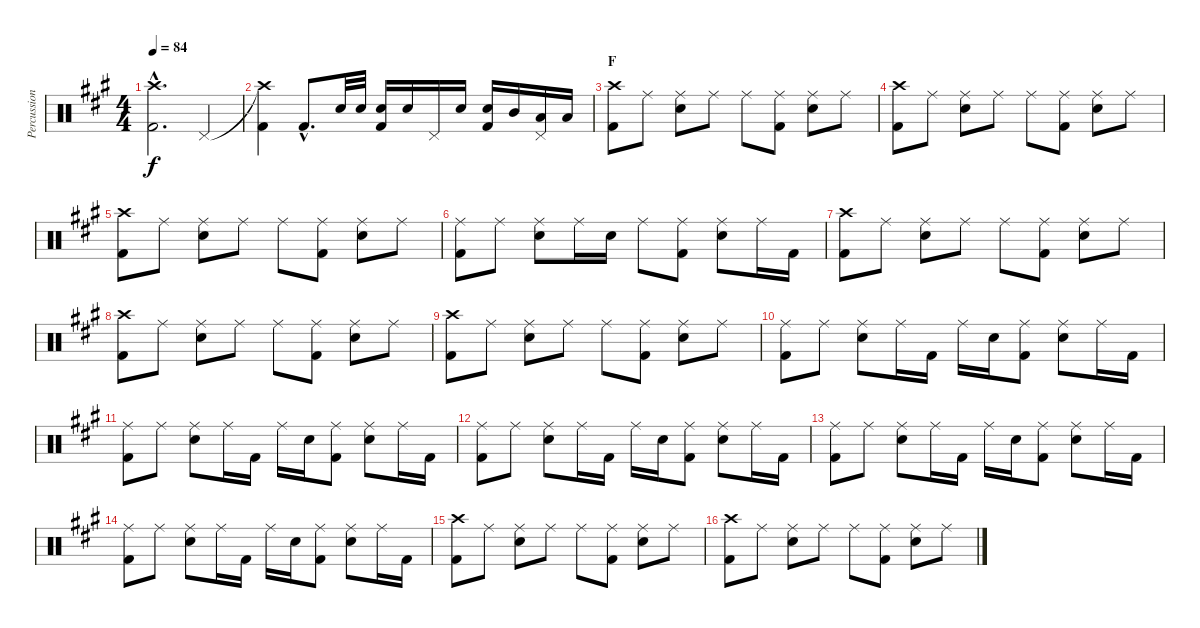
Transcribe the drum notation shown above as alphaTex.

\track ("Percussion - Chad S" "Percussion") {instrument percussion}
\staff {score}
\articulation defaults
\ts (4 4)
\tempo 84
\clef neutral
\ks a
("Crash high (hit)"{hac} "Kick (hit) 2"{hac}).2{d dy f} "Pedal Hi-Hat (hit)".4 |
("Crash high (hit)"{t} "Kick (hit) 2").4 "Kick (hit) 2"{hac}.8{d} "Snare (hit) 2".32 "Snare (hit) 2".32 ("Snare (hit) 2" "Kick (hit) 2").16 "Snare (hit) 2".16 "Pedal Hi-Hat (hit)".16 "Snare (hit) 2".16 ("Snare (hit) 2" "Kick (hit) 2").16 "Mid Tom (hit)".16 ("Low Tom (hit)" "Pedal Hi-Hat (hit)").16 "Low Floor Tom (hit)".16 |
\section ("" "F")
("Crash high (hit)" "Kick (hit) 2").8 "Ride (middle)".8 ("Ride (middle)" "Snare (hit) 2").8 "Ride (middle)".8 "Ride (middle)".8 ("Ride (middle)" "Kick (hit) 2").8 ("Ride (middle)" "Snare (hit) 2").8 "Ride (middle)".8 |
("Crash high (hit)" "Kick (hit) 2").8 "Ride (middle)".8 ("Ride (middle)" "Snare (hit) 2").8 "Ride (middle)".8 "Ride (middle)".8 ("Ride (middle)" "Kick (hit) 2").8 ("Ride (middle)" "Snare (hit) 2").8 "Ride (middle)".8 |
("Crash high (hit)" "Kick (hit) 2").8 "Ride (middle)".8 ("Ride (middle)" "Snare (hit) 2").8 "Ride (middle)".8 "Ride (middle)".8 ("Ride (middle)" "Kick (hit) 2").8 ("Ride (middle)" "Snare (hit) 2").8 "Ride (middle)".8 |
("Ride (middle)" "Kick (hit) 2").8 "Ride (middle)".8 ("Ride (middle)" "Snare (hit) 2").8 "Ride (middle)".16 "Snare (hit) 2".16 "Ride (middle)".8 ("Ride (middle)" "Kick (hit) 2").8 ("Ride (middle)" "Snare (hit) 2").8 "Ride (middle)".16 "Kick (hit) 2".16 |
("Crash high (hit)" "Kick (hit) 2").8 "Ride (middle)".8 ("Ride (middle)" "Snare (hit) 2").8 "Ride (middle)".8 "Ride (middle)".8 ("Ride (middle)" "Kick (hit) 2").8 ("Ride (middle)" "Snare (hit) 2").8 "Ride (middle)".8 |
("Crash high (hit)" "Kick (hit) 2").8 "Ride (middle)".8 ("Ride (middle)" "Snare (hit) 2").8 "Ride (middle)".8 "Ride (middle)".8 ("Ride (middle)" "Kick (hit) 2").8 ("Ride (middle)" "Snare (hit) 2").8 "Ride (middle)".8 |
("Crash high (hit)" "Kick (hit) 2").8 "Ride (middle)".8 ("Ride (middle)" "Snare (hit) 2").8 "Ride (middle)".8 "Ride (middle)".8 ("Ride (middle)" "Kick (hit) 2").8 ("Ride (middle)" "Snare (hit) 2").8 "Ride (middle)".8 |
("Ride (middle)" "Kick (hit) 2").8 "Ride (middle)".8 ("Ride (middle)" "Snare (hit) 2").8 "Ride (middle)".16 "Kick (hit) 2".16 "Ride (middle)".16 "Snare (hit) 2".16 ("Ride (middle)" "Kick (hit) 2").8 ("Ride (middle)" "Snare (hit) 2").8 "Ride (middle)".16 "Kick (hit) 2".16 |
("Ride (middle)" "Kick (hit) 2").8 "Ride (middle)".8 ("Ride (middle)" "Snare (hit) 2").8 "Ride (middle)".16 "Kick (hit) 2".16 "Ride (middle)".16 "Snare (hit) 2".16 ("Ride (middle)" "Kick (hit) 2").8 ("Ride (middle)" "Snare (hit) 2").8 "Ride (middle)".16 "Kick (hit) 2".16 |
("Ride (middle)" "Kick (hit) 2").8 "Ride (middle)".8 ("Ride (middle)" "Snare (hit) 2").8 "Ride (middle)".16 "Kick (hit) 2".16 "Ride (middle)".16 "Snare (hit) 2".16 ("Ride (middle)" "Kick (hit) 2").8 ("Ride (middle)" "Snare (hit) 2").8 "Ride (middle)".16 "Kick (hit) 2".16 |
("Ride (middle)" "Kick (hit) 2").8 "Ride (middle)".8 ("Ride (middle)" "Snare (hit) 2").8 "Ride (middle)".16 "Kick (hit) 2".16 "Ride (middle)".16 "Snare (hit) 2".16 ("Ride (middle)" "Kick (hit) 2").8 ("Ride (middle)" "Snare (hit) 2").8 "Ride (middle)".16 "Kick (hit) 2".16 |
("Ride (middle)" "Kick (hit) 2").8 "Ride (middle)".8 ("Ride (middle)" "Snare (hit) 2").8 "Ride (middle)".16 "Kick (hit) 2".16 "Ride (middle)".16 "Snare (hit) 2".16 ("Ride (middle)" "Kick (hit) 2").8 ("Ride (middle)" "Snare (hit) 2").8 "Ride (middle)".16 "Kick (hit) 2".16 |
("Crash high (hit)" "Kick (hit) 2").8 "Ride (middle)".8 ("Ride (middle)" "Snare (hit) 2").8 "Ride (middle)".8 "Ride (middle)".8 ("Ride (middle)" "Kick (hit) 2").8 ("Ride (middle)" "Snare (hit) 2").8 "Ride (middle)".8 |
("Crash high (hit)" "Kick (hit) 2").8 "Ride (middle)".8 ("Ride (middle)" "Snare (hit) 2").8 "Ride (middle)".8 "Ride (middle)".8 ("Ride (middle)" "Kick (hit) 2").8 ("Ride (middle)" "Snare (hit) 2").8 "Ride (middle)".8
